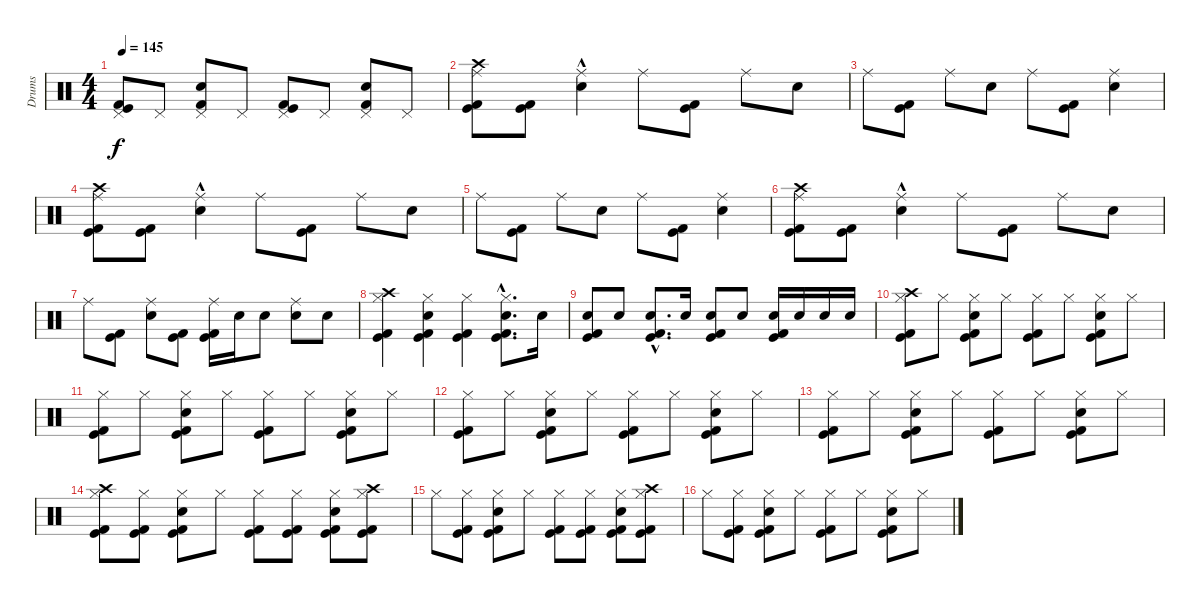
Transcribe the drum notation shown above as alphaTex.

\track ("Drums" "Drums") {instrument percussion}
\staff {score}
\articulation defaults
\ts (4 4)
\tempo 145
\clef neutral
\ks c
("Kick (hit) 2" "Pedal Hi-Hat (hit)" "Kick (hit)").8{dy f} "Pedal Hi-Hat (hit)".8 ("Electric Snare (hit)" "Pedal Hi-Hat (hit)" "Kick (hit) 2").8 "Pedal Hi-Hat (hit)".8 ("Kick (hit) 2" "Pedal Hi-Hat (hit)" "Kick (hit)").8 "Pedal Hi-Hat (hit)".8 ("Electric Snare (hit)" "Pedal Hi-Hat (hit)" "Kick (hit) 2").8 "Pedal Hi-Hat (hit)".8 |
("Ride (middle)" "Crash high (hit)" "Kick (hit) 2" "Kick (hit)").8 ("Kick (hit) 2" "Kick (hit)").8 ("Ride (middle)" "Electric Snare (hit)"{hac}).4 "Ride (middle)".8 ("Kick (hit) 2" "Kick (hit)").8 "Ride (middle)".8 "Electric Snare (hit)".8 |
"Ride (middle)".8 ("Kick (hit) 2" "Kick (hit)").8 "Ride (middle)".8 "Electric Snare (hit)".8 "Ride (middle)".8 ("Kick (hit) 2" "Kick (hit)").8 ("Ride (middle)" "Electric Snare (hit)").4 |
("Ride (middle)" "Crash high (hit)" "Kick (hit) 2" "Kick (hit)").8 ("Kick (hit) 2" "Kick (hit)").8 ("Ride (middle)" "Electric Snare (hit)"{hac}).4 "Ride (middle)".8 ("Kick (hit) 2" "Kick (hit)").8 "Ride (middle)".8 "Electric Snare (hit)".8 |
"Ride (middle)".8 ("Kick (hit) 2" "Kick (hit)").8 "Ride (middle)".8 "Electric Snare (hit)".8 "Ride (middle)".8 ("Kick (hit) 2" "Kick (hit)").8 ("Ride (middle)" "Electric Snare (hit)").4 |
("Ride (middle)" "Crash high (hit)" "Kick (hit) 2" "Kick (hit)").8 ("Kick (hit) 2" "Kick (hit)").8 ("Ride (middle)" "Electric Snare (hit)"{hac}).4 "Ride (middle)".8 ("Kick (hit) 2" "Kick (hit)").8 "Ride (middle)".8 "Electric Snare (hit)".8 |
"Ride (middle)".8 ("Kick (hit) 2" "Kick (hit)").8 ("Ride (middle)" "Electric Snare (hit)").8 ("Kick (hit) 2" "Kick (hit)").8 ("Ride (middle)" "Kick (hit) 2" "Kick (hit)").16 "Electric Snare (hit)".16 "Electric Snare (hit)".8 ("Ride (middle)" "Electric Snare (hit)").8 "Electric Snare (hit)".8 |
("Crash high (hit)" "Hi-Hat (closed)" "Kick (hit) 2" "Kick (hit)").4 ("Kick (hit) 2" "Hi-Hat (closed)" "Electric Snare (hit)" "Kick (hit)").4 ("Hi-Hat (closed)" "Kick (hit) 2" "Kick (hit)").4 ("Kick (hit) 2" "Electric Snare (hit)"{hac} "Hi-Hat (closed)" "Kick (hit)"{hac}).8{d} "Electric Snare (hit)".16 |
("Kick (hit) 2" "Electric Snare (hit)" "Kick (hit)").8 "Electric Snare (hit)".8 ("Electric Snare (hit)"{hac} "Kick (hit) 2" "Kick (hit)"{hac}).8{d} "Electric Snare (hit)".16 ("Kick (hit) 2" "Electric Snare (hit)" "Kick (hit)").8 "Electric Snare (hit)".8 ("Kick (hit) 2" "Electric Snare (hit)" "Kick (hit)").16 "Electric Snare (hit)".16 "Electric Snare (hit)".16 "Electric Snare (hit)".16 |
("Crash high (hit)" "Kick (hit) 2" "Hi-Hat (closed)" "Kick (hit)").8 "Hi-Hat (closed)".8 ("Electric Snare (hit)" "Hi-Hat (closed)" "Kick (hit) 2" "Kick (hit)").8 "Hi-Hat (closed)".8 ("Kick (hit) 2" "Hi-Hat (closed)" "Kick (hit)").8 "Hi-Hat (closed)".8 ("Hi-Hat (closed)" "Electric Snare (hit)" "Kick (hit) 2" "Kick (hit)").8 "Hi-Hat (closed)".8 |
("Kick (hit) 2" "Hi-Hat (closed)" "Kick (hit)").8 "Hi-Hat (closed)".8 ("Electric Snare (hit)" "Hi-Hat (closed)" "Kick (hit) 2" "Kick (hit)").8 "Hi-Hat (closed)".8 ("Kick (hit) 2" "Hi-Hat (closed)" "Kick (hit)").8 "Hi-Hat (closed)".8 ("Electric Snare (hit)" "Hi-Hat (closed)" "Kick (hit) 2" "Kick (hit)").8 "Hi-Hat (closed)".8 |
("Hi-Hat (closed)" "Kick (hit) 2" "Kick (hit)").8 "Hi-Hat (closed)".8 ("Hi-Hat (closed)" "Electric Snare (hit)" "Kick (hit) 2" "Kick (hit)").8 "Hi-Hat (closed)".8 ("Hi-Hat (closed)" "Kick (hit) 2" "Kick (hit)").8 "Hi-Hat (closed)".8 ("Hi-Hat (closed)" "Electric Snare (hit)" "Kick (hit) 2" "Kick (hit)").8 "Hi-Hat (closed)".8 |
("Hi-Hat (closed)" "Kick (hit) 2" "Kick (hit)").8 "Hi-Hat (closed)".8 ("Hi-Hat (closed)" "Electric Snare (hit)" "Kick (hit) 2" "Kick (hit)").8 "Hi-Hat (closed)".8 ("Hi-Hat (closed)" "Kick (hit) 2" "Kick (hit)").8 "Hi-Hat (closed)".8 ("Hi-Hat (closed)" "Electric Snare (hit)" "Kick (hit) 2" "Kick (hit)").8 "Hi-Hat (closed)".8 |
("Crash high (hit)" "Hi-Hat (closed)" "Kick (hit) 2" "Kick (hit)").8 ("Kick (hit) 2" "Hi-Hat (closed)" "Kick (hit)").8 ("Hi-Hat (closed)" "Electric Snare (hit)" "Kick (hit) 2" "Kick (hit)").8 "Hi-Hat (closed)".8 ("Hi-Hat (closed)" "Kick (hit) 2" "Kick (hit)").8 ("Kick (hit) 2" "Hi-Hat (closed)" "Kick (hit)").8 ("Hi-Hat (closed)" "Electric Snare (hit)" "Kick (hit) 2" "Kick (hit)").8 ("Crash high (hit)" "Kick (hit) 2" "Hi-Hat (closed)" "Kick (hit)").8 |
"Hi-Hat (closed)".8 ("Hi-Hat (closed)" "Kick (hit) 2" "Kick (hit)").8 ("Hi-Hat (closed)" "Electric Snare (hit)" "Kick (hit) 2" "Kick (hit)").8 "Hi-Hat (closed)".8 ("Hi-Hat (closed)" "Kick (hit) 2" "Kick (hit)").8 ("Kick (hit) 2" "Hi-Hat (closed)" "Kick (hit)").8 ("Hi-Hat (closed)" "Electric Snare (hit)" "Kick (hit) 2" "Kick (hit)").8 ("Kick (hit) 2" "Hi-Hat (closed)" "Crash high (hit)" "Kick (hit)").8 |
"Hi-Hat (closed)".8 ("Hi-Hat (closed)" "Kick (hit) 2" "Kick (hit)").8 ("Electric Snare (hit)" "Hi-Hat (closed)" "Kick (hit) 2" "Kick (hit)").8 "Hi-Hat (closed)".8 ("Kick (hit) 2" "Hi-Hat (closed)" "Kick (hit)").8 "Hi-Hat (closed)".8 ("Hi-Hat (closed)" "Electric Snare (hit)" "Kick (hit) 2" "Kick (hit)").8 "Hi-Hat (closed)".8
